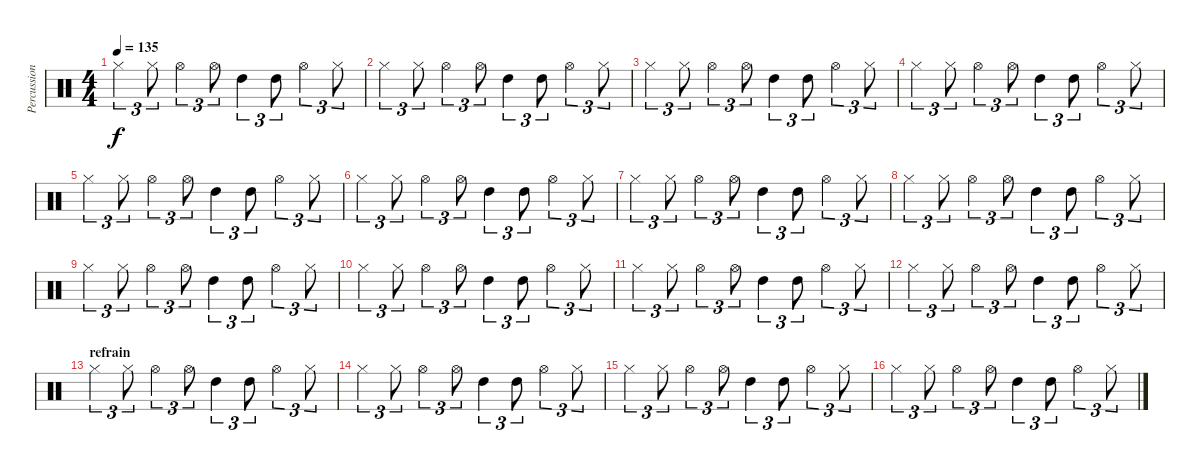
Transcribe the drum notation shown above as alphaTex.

\track ("Percussions" "Percussion") {instrument percussion}
\staff {score}
\articulation defaults
\ts (4 4)
\tempo 135
\clef neutral
\ks c "Hi-Hat (closed)".4{tu (3 2) dy f} "Hi-Hat (closed)".8{tu (3 2)} "Hi-Hat (open)".4{tu (3 2)} "Hi-Hat (open)".8{tu (3 2)} "High Tom (hit)".4{tu (3 2)} "High Tom (hit)".8{tu (3 2)} "Hi-Hat (open)".4{tu (3 2)} "Hi-Hat (closed)".8{tu (3 2)}
|
"Hi-Hat (closed)".4{tu (3 2)} "Hi-Hat (closed)".8{tu (3 2)} "Hi-Hat (open)".4{tu (3 2)} "Hi-Hat (open)".8{tu (3 2)} "High Tom (hit)".4{tu (3 2)} "High Tom (hit)".8{tu (3 2)} "Hi-Hat (open)".4{tu (3 2)} "Hi-Hat (closed)".8{tu (3 2)} |
"Hi-Hat (closed)".4{tu (3 2)} "Hi-Hat (closed)".8{tu (3 2)} "Hi-Hat (open)".4{tu (3 2)} "Hi-Hat (open)".8{tu (3 2)} "High Tom (hit)".4{tu (3 2)} "High Tom (hit)".8{tu (3 2)} "Hi-Hat (open)".4{tu (3 2)} "Hi-Hat (closed)".8{tu (3 2)} |
"Hi-Hat (closed)".4{tu (3 2)} "Hi-Hat (closed)".8{tu (3 2)} "Hi-Hat (open)".4{tu (3 2)} "Hi-Hat (open)".8{tu (3 2)} "High Tom (hit)".4{tu (3 2)} "High Tom (hit)".8{tu (3 2)} "Hi-Hat (open)".4{tu (3 2)} "Hi-Hat (closed)".8{tu (3 2)} |
"Hi-Hat (closed)".4{tu (3 2)} "Hi-Hat (closed)".8{tu (3 2)} "Hi-Hat (open)".4{tu (3 2)} "Hi-Hat (open)".8{tu (3 2)} "High Tom (hit)".4{tu (3 2)} "High Tom (hit)".8{tu (3 2)} "Hi-Hat (open)".4{tu (3 2)} "Hi-Hat (closed)".8{tu (3 2)} |
"Hi-Hat (closed)".4{tu (3 2)} "Hi-Hat (closed)".8{tu (3 2)} "Hi-Hat (open)".4{tu (3 2)} "Hi-Hat (open)".8{tu (3 2)} "High Tom (hit)".4{tu (3 2)} "High Tom (hit)".8{tu (3 2)} "Hi-Hat (open)".4{tu (3 2)} "Hi-Hat (closed)".8{tu (3 2)} |
"Hi-Hat (closed)".4{tu (3 2)} "Hi-Hat (closed)".8{tu (3 2)} "Hi-Hat (open)".4{tu (3 2)} "Hi-Hat (open)".8{tu (3 2)} "High Tom (hit)".4{tu (3 2)} "High Tom (hit)".8{tu (3 2)} "Hi-Hat (open)".4{tu (3 2)} "Hi-Hat (closed)".8{tu (3 2)} |
"Hi-Hat (closed)".4{tu (3 2)} "Hi-Hat (closed)".8{tu (3 2)} "Hi-Hat (open)".4{tu (3 2)} "Hi-Hat (open)".8{tu (3 2)} "High Tom (hit)".4{tu (3 2)} "High Tom (hit)".8{tu (3 2)} "Hi-Hat (open)".4{tu (3 2)} "Hi-Hat (closed)".8{tu (3 2)} |
"Hi-Hat (closed)".4{tu (3 2)} "Hi-Hat (closed)".8{tu (3 2)} "Hi-Hat (open)".4{tu (3 2)} "Hi-Hat (open)".8{tu (3 2)} "High Tom (hit)".4{tu (3 2)} "High Tom (hit)".8{tu (3 2)} "Hi-Hat (open)".4{tu (3 2)} "Hi-Hat (closed)".8{tu (3 2)} |
"Hi-Hat (closed)".4{tu (3 2)} "Hi-Hat (closed)".8{tu (3 2)} "Hi-Hat (open)".4{tu (3 2)} "Hi-Hat (open)".8{tu (3 2)} "High Tom (hit)".4{tu (3 2)} "High Tom (hit)".8{tu (3 2)} "Hi-Hat (open)".4{tu (3 2)} "Hi-Hat (closed)".8{tu (3 2)} |
"Hi-Hat (closed)".4{tu (3 2)} "Hi-Hat (closed)".8{tu (3 2)} "Hi-Hat (open)".4{tu (3 2)} "Hi-Hat (open)".8{tu (3 2)} "High Tom (hit)".4{tu (3 2)} "High Tom (hit)".8{tu (3 2)} "Hi-Hat (open)".4{tu (3 2)} "Hi-Hat (closed)".8{tu (3 2)} |
"Hi-Hat (closed)".4{tu (3 2)} "Hi-Hat (closed)".8{tu (3 2)} "Hi-Hat (open)".4{tu (3 2)} "Hi-Hat (open)".8{tu (3 2)} "High Tom (hit)".4{tu (3 2)} "High Tom (hit)".8{tu (3 2)} "Hi-Hat (open)".4{tu (3 2)} "Hi-Hat (closed)".8{tu (3 2)} |
\section ("" "refrain")
"Hi-Hat (closed)".4{tu (3 2)} "Hi-Hat (closed)".8{tu (3 2)} "Hi-Hat (open)".4{tu (3 2)} "Hi-Hat (open)".8{tu (3 2)} "High Tom (hit)".4{tu (3 2)} "High Tom (hit)".8{tu (3 2)} "Hi-Hat (open)".4{tu (3 2)} "Hi-Hat (closed)".8{tu (3 2)} |
"Hi-Hat (closed)".4{tu (3 2)} "Hi-Hat (closed)".8{tu (3 2)} "Hi-Hat (open)".4{tu (3 2)} "Hi-Hat (open)".8{tu (3 2)} "High Tom (hit)".4{tu (3 2)} "High Tom (hit)".8{tu (3 2)} "Hi-Hat (open)".4{tu (3 2)} "Hi-Hat (closed)".8{tu (3 2)} |
"Hi-Hat (closed)".4{tu (3 2)} "Hi-Hat (closed)".8{tu (3 2)} "Hi-Hat (open)".4{tu (3 2)} "Hi-Hat (open)".8{tu (3 2)} "High Tom (hit)".4{tu (3 2)} "High Tom (hit)".8{tu (3 2)} "Hi-Hat (open)".4{tu (3 2)} "Hi-Hat (closed)".8{tu (3 2)} |
"Hi-Hat (closed)".4{tu (3 2)} "Hi-Hat (closed)".8{tu (3 2)} "Hi-Hat (open)".4{tu (3 2)} "Hi-Hat (open)".8{tu (3 2)} "High Tom (hit)".4{tu (3 2)} "High Tom (hit)".8{tu (3 2)} "Hi-Hat (open)".4{tu (3 2)} "Hi-Hat (closed)".8{tu (3 2)}
